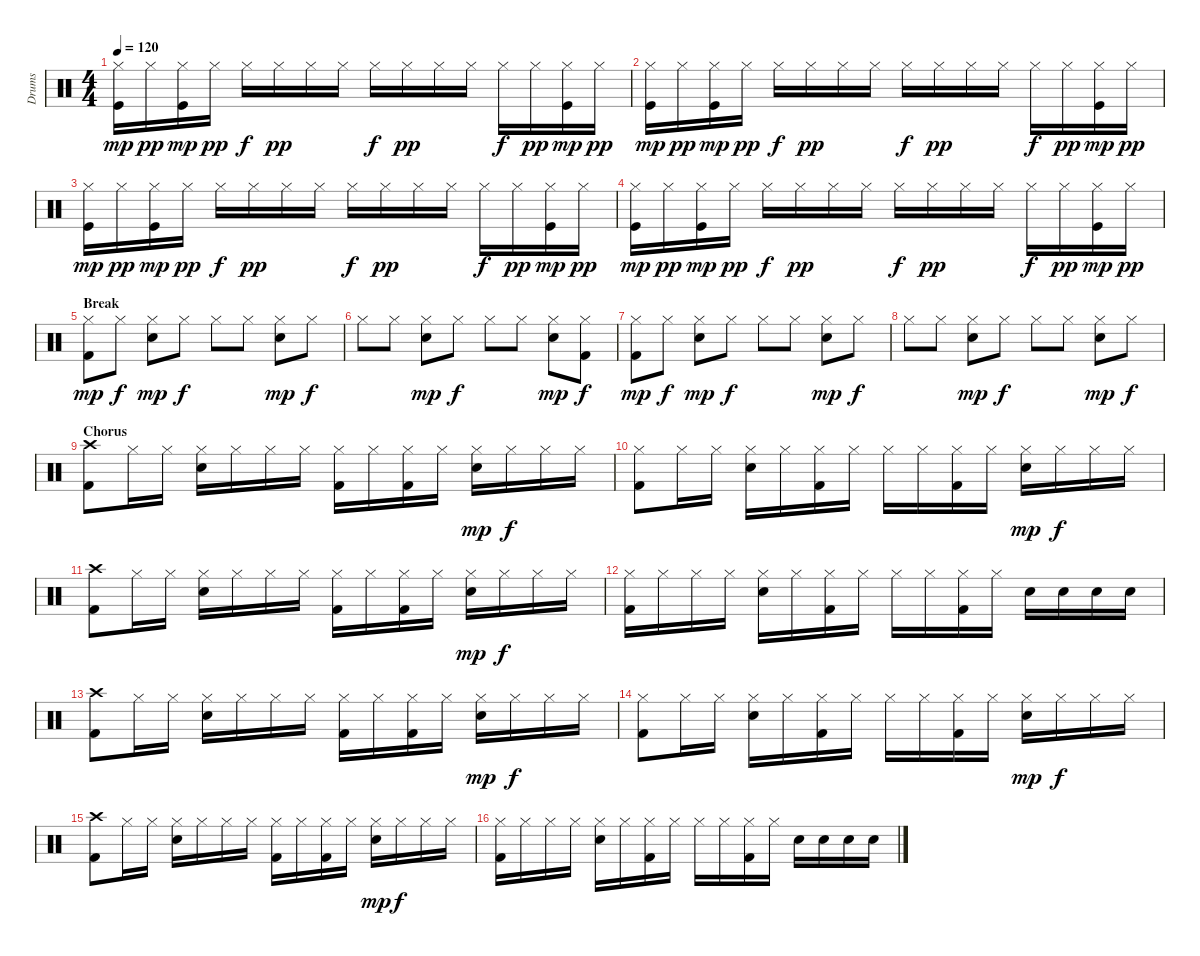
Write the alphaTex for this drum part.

\track ("Drums" "Drums") {instrument percussion}
\staff {score}
\articulation defaults
\ts (4 4)
\tempo 120
\clef neutral
\ks c
("Hi-Hat (closed)" "Kick (hit)").16{dy mp} "Hi-Hat (closed)".16{dy pp} ("Hi-Hat (closed)" "Kick (hit)").16{dy mp} "Hi-Hat (closed)".16{dy pp} "Hi-Hat (closed)".16{dy f} "Hi-Hat (closed)".16{dy pp} "Hi-Hat (closed)".16 "Hi-Hat (closed)".16 "Hi-Hat (closed)".16{dy f} "Hi-Hat (closed)".16{dy pp} "Hi-Hat (closed)".16 "Hi-Hat (closed)".16 "Hi-Hat (closed)".16{dy f} "Hi-Hat (closed)".16{dy pp} ("Hi-Hat (closed)" "Kick (hit)").16{dy mp} "Hi-Hat (closed)".16{dy pp} |
("Hi-Hat (closed)" "Kick (hit)").16{dy mp} "Hi-Hat (closed)".16{dy pp} ("Hi-Hat (closed)" "Kick (hit)").16{dy mp} "Hi-Hat (closed)".16{dy pp} "Hi-Hat (closed)".16{dy f} "Hi-Hat (closed)".16{dy pp} "Hi-Hat (closed)".16 "Hi-Hat (closed)".16 "Hi-Hat (closed)".16{dy f} "Hi-Hat (closed)".16{dy pp} "Hi-Hat (closed)".16 "Hi-Hat (closed)".16 "Hi-Hat (closed)".16{dy f} "Hi-Hat (closed)".16{dy pp} ("Hi-Hat (closed)" "Kick (hit)").16{dy mp} "Hi-Hat (closed)".16{dy pp} |
("Hi-Hat (closed)" "Kick (hit)").16{dy mp} "Hi-Hat (closed)".16{dy pp} ("Hi-Hat (closed)" "Kick (hit)").16{dy mp} "Hi-Hat (closed)".16{dy pp} "Hi-Hat (closed)".16{dy f} "Hi-Hat (closed)".16{dy pp} "Hi-Hat (closed)".16 "Hi-Hat (closed)".16 "Hi-Hat (closed)".16{dy f} "Hi-Hat (closed)".16{dy pp} "Hi-Hat (closed)".16 "Hi-Hat (closed)".16 "Hi-Hat (closed)".16{dy f} "Hi-Hat (closed)".16{dy pp} ("Hi-Hat (closed)" "Kick (hit)").16{dy mp} "Hi-Hat (closed)".16{dy pp} |
("Hi-Hat (closed)" "Kick (hit)").16{dy mp} "Hi-Hat (closed)".16{dy pp} ("Hi-Hat (closed)" "Kick (hit)").16{dy mp} "Hi-Hat (closed)".16{dy pp} "Hi-Hat (closed)".16{dy f} "Hi-Hat (closed)".16{dy pp} "Hi-Hat (closed)".16 "Hi-Hat (closed)".16 "Hi-Hat (closed)".16{dy f} "Hi-Hat (closed)".16{dy pp} "Hi-Hat (closed)".16 "Hi-Hat (closed)".16 "Hi-Hat (closed)".16{dy f} "Hi-Hat (closed)".16{dy pp} ("Hi-Hat (closed)" "Kick (hit)").16{dy mp} "Hi-Hat (closed)".16{dy pp} |
\section ("" "Break")
("Hi-Hat (closed)" "Kick (hit) 2").8{dy mp} "Hi-Hat (closed)".8{dy f} ("Hi-Hat (closed)" "Electric Snare (hit)").8{dy mp} "Hi-Hat (closed)".8{dy f} "Hi-Hat (closed)".8 "Hi-Hat (closed)".8 ("Hi-Hat (closed)" "Electric Snare (hit)").8{dy mp} "Hi-Hat (closed)".8{dy f} |
"Hi-Hat (closed)".8 "Hi-Hat (closed)".8 ("Hi-Hat (closed)" "Electric Snare (hit)").8{dy mp} "Hi-Hat (closed)".8{dy f} "Hi-Hat (closed)".8 "Hi-Hat (closed)".8 ("Hi-Hat (closed)" "Electric Snare (hit)").8{dy mp} ("Hi-Hat (closed)" "Kick (hit) 2").8{dy f} |
("Hi-Hat (closed)" "Kick (hit) 2").8{dy mp} "Hi-Hat (closed)".8{dy f} ("Hi-Hat (closed)" "Electric Snare (hit)").8{dy mp} "Hi-Hat (closed)".8{dy f} "Hi-Hat (closed)".8 "Hi-Hat (closed)".8 ("Hi-Hat (closed)" "Electric Snare (hit)").8{dy mp} "Hi-Hat (closed)".8{dy f} |
"Hi-Hat (closed)".8 "Hi-Hat (closed)".8 ("Hi-Hat (closed)" "Electric Snare (hit)").8{dy mp} "Hi-Hat (closed)".8{dy f} "Hi-Hat (closed)".8 "Hi-Hat (closed)".8 ("Hi-Hat (closed)" "Electric Snare (hit)").8{dy mp} "Hi-Hat (closed)".8{dy f} |
\section ("" "Chorus")
("Crash high (hit)" "Kick (hit) 2").8 "Hi-Hat (closed)".16 "Hi-Hat (closed)".16 ("Hi-Hat (closed)" "Electric Snare (hit)").16 "Hi-Hat (closed)".16 "Hi-Hat (closed)".16 "Hi-Hat (closed)".16 ("Hi-Hat (closed)" "Kick (hit) 2").16 "Hi-Hat (closed)".16 ("Hi-Hat (closed)" "Kick (hit) 2").16 "Hi-Hat (closed)".16 ("Hi-Hat (closed)" "Electric Snare (hit)").16{dy mp} "Hi-Hat (closed)".16{dy f} "Hi-Hat (closed)".16 "Hi-Hat (closed)".16 |
("Hi-Hat (closed)" "Kick (hit) 2").8 "Hi-Hat (closed)".16 "Hi-Hat (closed)".16 ("Hi-Hat (closed)" "Electric Snare (hit)").16 "Hi-Hat (closed)".16 ("Hi-Hat (closed)" "Kick (hit) 2").16 "Hi-Hat (closed)".16 "Hi-Hat (closed)".16 "Hi-Hat (closed)".16 ("Hi-Hat (closed)" "Kick (hit) 2").16 "Hi-Hat (closed)".16 ("Hi-Hat (closed)" "Electric Snare (hit)").16{dy mp} "Hi-Hat (closed)".16{dy f} "Hi-Hat (closed)".16 "Hi-Hat (closed)".16 |
("Crash high (hit)" "Kick (hit) 2").8 "Hi-Hat (closed)".16 "Hi-Hat (closed)".16 ("Hi-Hat (closed)" "Electric Snare (hit)").16 "Hi-Hat (closed)".16 "Hi-Hat (closed)".16 "Hi-Hat (closed)".16 ("Hi-Hat (closed)" "Kick (hit) 2").16 "Hi-Hat (closed)".16 ("Hi-Hat (closed)" "Kick (hit) 2").16 "Hi-Hat (closed)".16 ("Hi-Hat (closed)" "Electric Snare (hit)").16{dy mp} "Hi-Hat (closed)".16{dy f} "Hi-Hat (closed)".16 "Hi-Hat (closed)".16 |
("Hi-Hat (closed)" "Kick (hit) 2").16 "Hi-Hat (closed)".16 "Hi-Hat (closed)".16 "Hi-Hat (closed)".16 ("Hi-Hat (closed)" "Electric Snare (hit)").16 "Hi-Hat (closed)".16 ("Hi-Hat (closed)" "Kick (hit) 2").16 "Hi-Hat (closed)".16 "Hi-Hat (closed)".16 "Hi-Hat (closed)".16 ("Hi-Hat (closed)" "Kick (hit) 2").16 "Hi-Hat (closed)".16 "Electric Snare (hit)".16 "Electric Snare (hit)".16 "Electric Snare (hit)".16 "Electric Snare (hit)".16 |
("Crash high (hit)" "Kick (hit) 2").8 "Hi-Hat (closed)".16 "Hi-Hat (closed)".16 ("Hi-Hat (closed)" "Electric Snare (hit)").16 "Hi-Hat (closed)".16 "Hi-Hat (closed)".16 "Hi-Hat (closed)".16 ("Hi-Hat (closed)" "Kick (hit) 2").16 "Hi-Hat (closed)".16 ("Hi-Hat (closed)" "Kick (hit) 2").16 "Hi-Hat (closed)".16 ("Hi-Hat (closed)" "Electric Snare (hit)").16{dy mp} "Hi-Hat (closed)".16{dy f} "Hi-Hat (closed)".16 "Hi-Hat (closed)".16 |
("Hi-Hat (closed)" "Kick (hit) 2").8 "Hi-Hat (closed)".16 "Hi-Hat (closed)".16 ("Hi-Hat (closed)" "Electric Snare (hit)").16 "Hi-Hat (closed)".16 ("Hi-Hat (closed)" "Kick (hit) 2").16 "Hi-Hat (closed)".16 "Hi-Hat (closed)".16 "Hi-Hat (closed)".16 ("Hi-Hat (closed)" "Kick (hit) 2").16 "Hi-Hat (closed)".16 ("Hi-Hat (closed)" "Electric Snare (hit)").16{dy mp} "Hi-Hat (closed)".16{dy f} "Hi-Hat (closed)".16 "Hi-Hat (closed)".16 |
("Crash high (hit)" "Kick (hit) 2").8 "Hi-Hat (closed)".16 "Hi-Hat (closed)".16 ("Hi-Hat (closed)" "Electric Snare (hit)").16 "Hi-Hat (closed)".16 "Hi-Hat (closed)".16 "Hi-Hat (closed)".16 ("Hi-Hat (closed)" "Kick (hit) 2").16 "Hi-Hat (closed)".16 ("Hi-Hat (closed)" "Kick (hit) 2").16 "Hi-Hat (closed)".16 ("Hi-Hat (closed)" "Electric Snare (hit)").16{dy mp} "Hi-Hat (closed)".16{dy f} "Hi-Hat (closed)".16 "Hi-Hat (closed)".16 |
("Hi-Hat (closed)" "Kick (hit) 2").16 "Hi-Hat (closed)".16 "Hi-Hat (closed)".16 "Hi-Hat (closed)".16 ("Hi-Hat (closed)" "Electric Snare (hit)").16 "Hi-Hat (closed)".16 ("Hi-Hat (closed)" "Kick (hit) 2").16 "Hi-Hat (closed)".16 "Hi-Hat (closed)".16 "Hi-Hat (closed)".16 ("Hi-Hat (closed)" "Kick (hit) 2").16 "Hi-Hat (closed)".16 "Electric Snare (hit)".16 "Electric Snare (hit)".16 "Electric Snare (hit)".16 "Electric Snare (hit)".16
